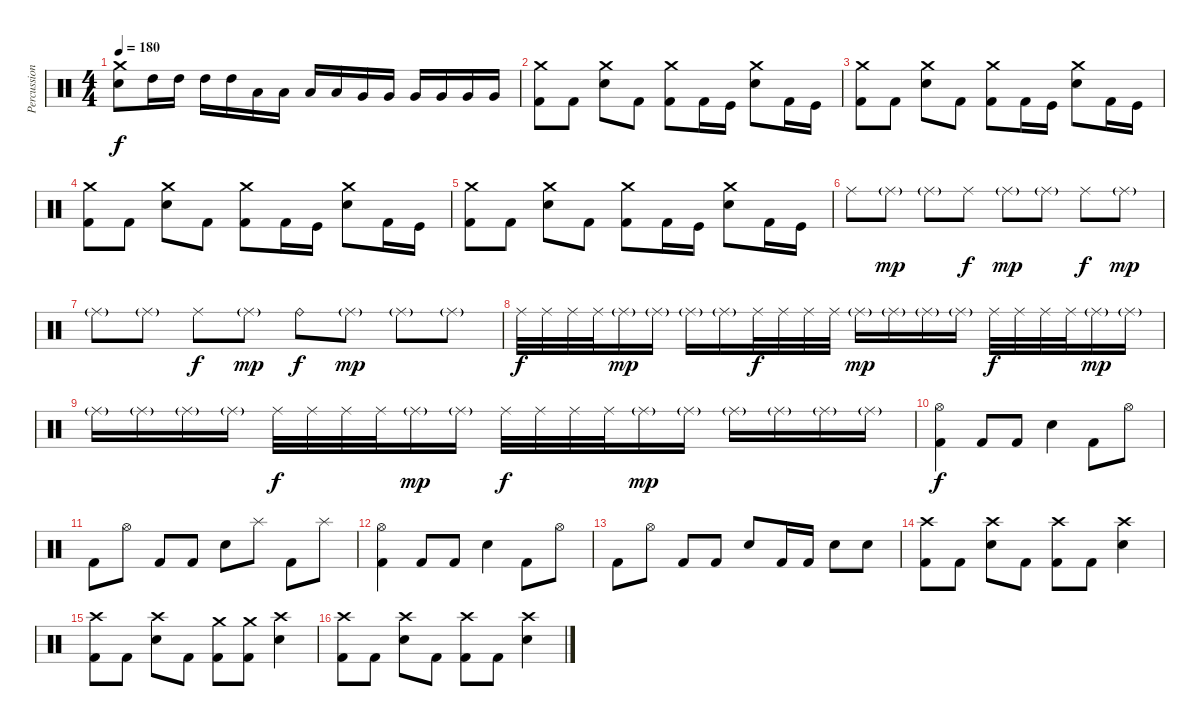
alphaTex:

\track ("Percussion" "Percussion") {instrument percussion}
\staff {score}
\articulation defaults
\ts (4 4)
\tempo 180
\clef neutral
\ks c
("Snare (hit) 2" "Crash medium (hit)").8{dy f} "High Tom (hit)".16 "High Tom (hit)".16 "High Tom (hit)".16 "High Tom (hit)".16 "Low Tom (hit)".16 "Low Tom (hit)".16 "Low Tom (hit)".16 "Low Tom (hit)".16 "Very Low Tom (hit)".16 "Very Low Tom (hit)".16 "Very Low Tom (hit)".16 "Very Low Tom (hit)".16 "Very Low Tom (hit)".16 "Very Low Tom (hit)".16 |
("Kick (hit) 2" "Crash medium (hit)").8 "Kick (hit) 2".8 ("Snare (hit) 2" "Crash medium (hit)").8 "Kick (hit) 2".8 ("Kick (hit) 2" "Crash medium (hit)").8 "Kick (hit) 2".16 "Kick (hit)".16 ("Snare (hit) 2" "Crash medium (hit)").8 "Kick (hit) 2".16 "Kick (hit)".16 |
("Kick (hit) 2" "Crash medium (hit)").8 "Kick (hit) 2".8 ("Snare (hit) 2" "Crash medium (hit)").8 "Kick (hit) 2".8 ("Kick (hit) 2" "Crash medium (hit)").8 "Kick (hit) 2".16 "Kick (hit)".16 ("Snare (hit) 2" "Crash medium (hit)").8 "Kick (hit) 2".16 "Kick (hit)".16 |
("Kick (hit) 2" "Crash medium (hit)").8 "Kick (hit) 2".8 ("Snare (hit) 2" "Crash medium (hit)").8 "Kick (hit) 2".8 ("Kick (hit) 2" "Crash medium (hit)").8 "Kick (hit) 2".16 "Kick (hit)".16 ("Snare (hit) 2" "Crash medium (hit)").8 "Kick (hit) 2".16 "Kick (hit)".16 |
("Kick (hit) 2" "Crash medium (hit)").8 "Kick (hit) 2".8 ("Snare (hit) 2" "Crash medium (hit)").8 "Kick (hit) 2".8 ("Kick (hit) 2" "Crash medium (hit)").8 "Kick (hit) 2".16 "Kick (hit)".16 ("Snare (hit) 2" "Crash medium (hit)").8 "Kick (hit) 2".16 "Kick (hit)".16 |
"Ride (middle)".8 "Ride (middle)"{g}.8{dy mp} "Ride (middle)"{g}.8 "Ride (middle)".8{dy f} "Ride (middle)"{g}.8{dy mp} "Ride (middle)"{g}.8 "Ride (middle)".8{dy f} "Ride (middle)"{g}.8{dy mp} |
"Ride (middle)"{g}.8 "Ride (middle)"{g}.8 "Ride (middle)".8{dy f} "Ride (middle)"{g}.8{dy mp} "Ride (bell)".8{dy f} "Ride (middle)"{g}.8{dy mp} "Ride (middle)"{g}.8 "Ride (middle)"{g}.8 |
"Ride (middle)".32{dy f} "Ride (middle)".32 "Ride (middle)".32 "Ride (middle)".32 "Ride (middle)"{g}.16{dy mp} "Ride (middle)"{g}.16 "Ride (middle)"{g}.16 "Ride (middle)"{g}.16 "Ride (middle)".32{dy f} "Ride (middle)".32 "Ride (middle)".32 "Ride (middle)".32 "Ride (middle)"{g}.16{dy mp} "Ride (middle)"{g}.16 "Ride (middle)"{g}.16 "Ride (middle)"{g}.16 "Ride (middle)".32{dy f} "Ride (middle)".32 "Ride (middle)".32 "Ride (middle)".32 "Ride (middle)"{g}.16{dy mp} "Ride (middle)"{g}.16 |
"Ride (middle)"{g}.16 "Ride (middle)"{g}.16 "Ride (middle)"{g}.16 "Ride (middle)"{g}.16 "Ride (middle)".32{dy f} "Ride (middle)".32 "Ride (middle)".32 "Ride (middle)".32 "Ride (middle)"{g}.16{dy mp} "Ride (middle)"{g}.16 "Ride (middle)".32{dy f} "Ride (middle)".32 "Ride (middle)".32 "Ride (middle)".32 "Ride (middle)"{g}.16{dy mp} "Ride (middle)"{g}.16 "Ride (middle)"{g}.16 "Ride (middle)"{g}.16 "Ride (middle)"{g}.16 "Ride (middle)"{g}.16 |
("Kick (hit) 2" "Hi-Hat (open)").4{dy f} "Kick (hit) 2".8 "Kick (hit) 2".8 "Snare (hit) 2".4 "Kick (hit) 2".8 "Hi-Hat (open)".8 |
"Kick (hit) 2".8 "Hi-Hat (open)".8 "Kick (hit) 2".8 "Kick (hit) 2".8 "Snare (hit) 2".8 "Splash (hit)".8 "Kick (hit) 2".8 "Splash (hit)".8 |
("Kick (hit) 2" "Hi-Hat (open)").4 "Kick (hit) 2".8 "Kick (hit) 2".8 "Snare (hit) 2".4 "Kick (hit) 2".8 "Hi-Hat (open)".8 |
"Kick (hit) 2".8 "Hi-Hat (open)".8 "Kick (hit) 2".8 "Kick (hit) 2".8 "Snare (hit) 2".8 "Kick (hit) 2".16 "Kick (hit) 2".16 "Snare (hit) 2".8 "Snare (hit) 2".8 |
("Kick (hit) 2" "Crash high (hit)").8 "Kick (hit) 2".8 ("Snare (hit) 2" "Crash high (hit)").8 "Kick (hit) 2".8 ("Kick (hit) 2" "Crash high (hit)").8 "Kick (hit) 2".8 ("Snare (hit) 2" "Crash high (hit)").4 |
("Kick (hit) 2" "Crash high (hit)").8 "Kick (hit) 2".8 ("Snare (hit) 2" "Crash high (hit)").8 "Kick (hit) 2".8 ("Kick (hit) 2" "Crash medium (hit)").8 ("Kick (hit) 2" "Crash medium (hit)").8 ("Snare (hit) 2" "Crash high (hit)").4 |
("Kick (hit) 2" "Crash high (hit)").8 "Kick (hit) 2".8 ("Snare (hit) 2" "Crash high (hit)").8 "Kick (hit) 2".8 ("Kick (hit) 2" "Crash high (hit)").8 "Kick (hit) 2".8 ("Snare (hit) 2" "Crash high (hit)").4
